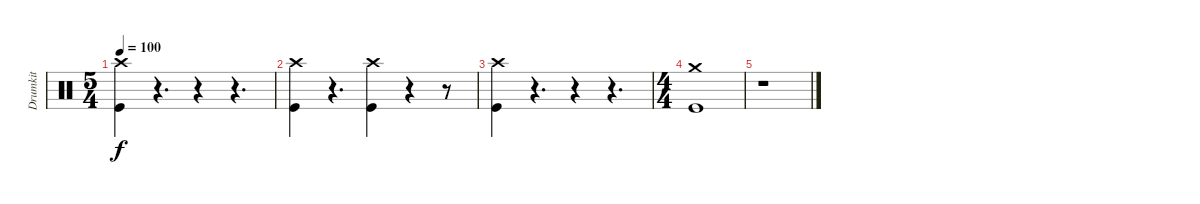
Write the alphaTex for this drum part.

\track ("Drumkit" "Drumkit") {instrument percussion}
\staff {score}
\articulation defaults
\ts (5 4)
\tempo 100
\clef neutral
\ks c
("Kick (hit)" "Crash high (hit)").4{dy f} r.4{d} r.4 r.4{d} |
("Kick (hit)" "Crash high (hit)").4 r.4{d} ("Kick (hit)" "Crash high (hit)").4 r.4 r.8 |
("Kick (hit)" "Crash high (hit)").4 r.4{d} r.4 r.4{d} |
\ts (4 4)
("Crash medium (hit)" "Kick (hit)").1 |
r.1
